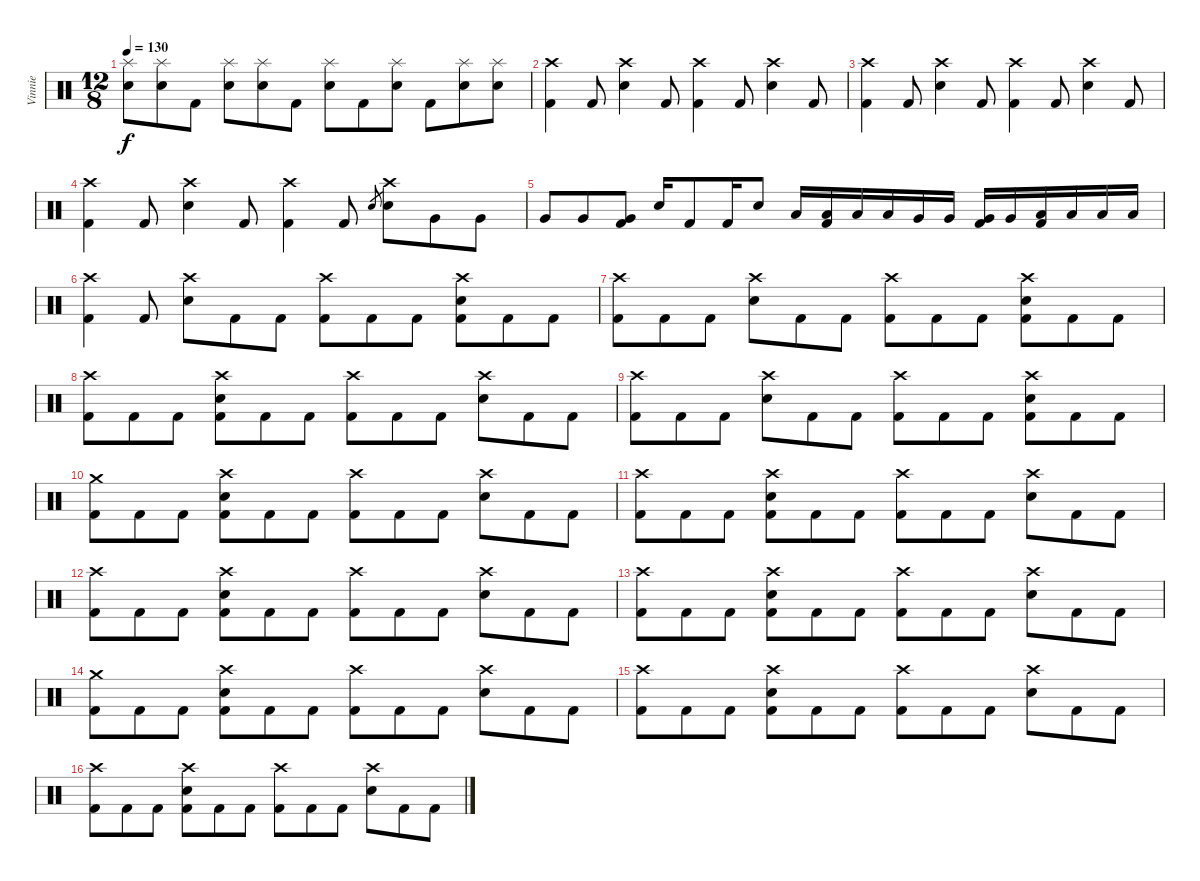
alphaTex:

\track ("Vinnie" "Vinnie") {instrument percussion}
\staff {score}
\articulation defaults
\ts (12 8)
\tempo 130
\clef neutral
\ks c
("Splash (hit)" "Electric Snare (hit)").8{dy f} ("Splash (hit)" "Electric Snare (hit)").8 "Kick (hit) 2".8 ("Splash (hit)" "Electric Snare (hit)").8 ("Splash (hit)" "Electric Snare (hit)").8 "Kick (hit) 2".8 ("Splash (hit)" "Electric Snare (hit)").8 "Kick (hit) 2".8 ("Splash (hit)" "Electric Snare (hit)").8 "Kick (hit) 2".8 ("Splash (hit)" "Electric Snare (hit)").8 ("Splash (hit)" "Electric Snare (hit)").8 |
("Crash high (hit)" "Kick (hit) 2").4 "Kick (hit) 2".8 ("Crash high (hit)" "Electric Snare (hit)").4 "Kick (hit) 2".8 ("Crash high (hit)" "Kick (hit) 2").4 "Kick (hit) 2".8 ("Crash high (hit)" "Electric Snare (hit)").4 "Kick (hit) 2".8 |
("Crash high (hit)" "Kick (hit) 2").4 "Kick (hit) 2".8 ("Crash high (hit)" "Electric Snare (hit)").4 "Kick (hit) 2".8 ("Crash high (hit)" "Kick (hit) 2").4 "Kick (hit) 2".8 ("Crash high (hit)" "Electric Snare (hit)").4 "Kick (hit) 2".8 |
("Crash high (hit)" "Kick (hit) 2").4 "Kick (hit) 2".8 ("Crash high (hit)" "Electric Snare (hit)").4 "Kick (hit) 2".8 ("Crash high (hit)" "Kick (hit) 2").4 "Kick (hit) 2".8 "Electric Snare (hit)".8{gr} ("Crash high (hit)" "Electric Snare (hit)").8 "Very Low Tom (hit)".8 "Very Low Tom (hit)".8 |
"Very Low Tom (hit)".8 "Very Low Tom (hit)".8 ("Very Low Tom (hit)" "Kick (hit) 2").8 "Electric Snare (hit)".16 "Kick (hit) 2".8 "Kick (hit) 2".16 "Electric Snare (hit)".8 "Low Tom (hit)".16 ("Low Tom (hit)" "Kick (hit) 2").16 "Low Tom (hit)".16 "Low Tom (hit)".16 "Very Low Tom (hit)".16 "Very Low Tom (hit)".16 ("Very Low Tom (hit)" "Kick (hit) 2").16 "Very Low Tom (hit)".16 ("Low Floor Tom (hit)" "Kick (hit) 2").16 "Low Floor Tom (hit)".16 "Low Floor Tom (hit)".16 "Low Floor Tom (hit)".16 |
("Crash high (hit)" "Kick (hit) 2").4 "Kick (hit) 2".8 ("Crash high (hit)" "Electric Snare (hit)").8 "Kick (hit) 2".8 "Kick (hit) 2".8 ("Crash high (hit)" "Kick (hit) 2").8 "Kick (hit) 2".8 "Kick (hit) 2".8 ("Crash high (hit)" "Electric Snare (hit)" "Kick (hit) 2").8 "Kick (hit) 2".8 "Kick (hit) 2".8 |
("Crash high (hit)" "Kick (hit) 2").8 "Kick (hit) 2".8 "Kick (hit) 2".8 ("Crash high (hit)" "Electric Snare (hit)").8 "Kick (hit) 2".8 "Kick (hit) 2".8 ("Crash high (hit)" "Kick (hit) 2").8 "Kick (hit) 2".8 "Kick (hit) 2".8 ("Crash high (hit)" "Electric Snare (hit)" "Kick (hit) 2").8 "Kick (hit) 2".8 "Kick (hit) 2".8 |
("Crash high (hit)" "Kick (hit) 2").8 "Kick (hit) 2".8 "Kick (hit) 2".8 ("Crash high (hit)" "Electric Snare (hit)" "Kick (hit) 2").8 "Kick (hit) 2".8 "Kick (hit) 2".8 ("Crash high (hit)" "Kick (hit) 2").8 "Kick (hit) 2".8 "Kick (hit) 2".8 ("Crash high (hit)" "Electric Snare (hit)").8 "Kick (hit) 2".8 "Kick (hit) 2".8 |
("Crash high (hit)" "Kick (hit) 2").8 "Kick (hit) 2".8 "Kick (hit) 2".8 ("Crash high (hit)" "Electric Snare (hit)").8 "Kick (hit) 2".8 "Kick (hit) 2".8 ("Crash high (hit)" "Kick (hit) 2").8 "Kick (hit) 2".8 "Kick (hit) 2".8 ("Crash high (hit)" "Electric Snare (hit)" "Kick (hit) 2").8 "Kick (hit) 2".8 "Kick (hit) 2".8 |
("Crash medium (hit)" "Kick (hit) 2").8 "Kick (hit) 2".8 "Kick (hit) 2".8 ("Crash high (hit)" "Electric Snare (hit)" "Kick (hit) 2").8 "Kick (hit) 2".8 "Kick (hit) 2".8 ("Crash high (hit)" "Kick (hit) 2").8 "Kick (hit) 2".8 "Kick (hit) 2".8 ("Crash high (hit)" "Electric Snare (hit)").8 "Kick (hit) 2".8 "Kick (hit) 2".8 |
("Crash high (hit)" "Kick (hit) 2").8 "Kick (hit) 2".8 "Kick (hit) 2".8 ("Crash high (hit)" "Electric Snare (hit)" "Kick (hit) 2").8 "Kick (hit) 2".8 "Kick (hit) 2".8 ("Crash high (hit)" "Kick (hit) 2").8 "Kick (hit) 2".8 "Kick (hit) 2".8 ("Crash high (hit)" "Electric Snare (hit)").8 "Kick (hit) 2".8 "Kick (hit) 2".8 |
("Crash high (hit)" "Kick (hit) 2").8 "Kick (hit) 2".8 "Kick (hit) 2".8 ("Crash high (hit)" "Electric Snare (hit)" "Kick (hit) 2").8 "Kick (hit) 2".8 "Kick (hit) 2".8 ("Crash high (hit)" "Kick (hit) 2").8 "Kick (hit) 2".8 "Kick (hit) 2".8 ("Crash high (hit)" "Electric Snare (hit)").8 "Kick (hit) 2".8 "Kick (hit) 2".8 |
("Crash high (hit)" "Kick (hit) 2").8 "Kick (hit) 2".8 "Kick (hit) 2".8 ("Crash high (hit)" "Electric Snare (hit)" "Kick (hit) 2").8 "Kick (hit) 2".8 "Kick (hit) 2".8 ("Crash high (hit)" "Kick (hit) 2").8 "Kick (hit) 2".8 "Kick (hit) 2".8 ("Crash high (hit)" "Electric Snare (hit)").8 "Kick (hit) 2".8 "Kick (hit) 2".8 |
("Crash medium (hit)" "Kick (hit) 2").8 "Kick (hit) 2".8 "Kick (hit) 2".8 ("Crash high (hit)" "Electric Snare (hit)" "Kick (hit) 2").8 "Kick (hit) 2".8 "Kick (hit) 2".8 ("Crash high (hit)" "Kick (hit) 2").8 "Kick (hit) 2".8 "Kick (hit) 2".8 ("Crash high (hit)" "Electric Snare (hit)").8 "Kick (hit) 2".8 "Kick (hit) 2".8 |
("Crash high (hit)" "Kick (hit) 2").8 "Kick (hit) 2".8 "Kick (hit) 2".8 ("Crash high (hit)" "Electric Snare (hit)" "Kick (hit) 2").8 "Kick (hit) 2".8 "Kick (hit) 2".8 ("Crash high (hit)" "Kick (hit) 2").8 "Kick (hit) 2".8 "Kick (hit) 2".8 ("Crash high (hit)" "Electric Snare (hit)").8 "Kick (hit) 2".8 "Kick (hit) 2".8 |
("Crash high (hit)" "Kick (hit) 2").8 "Kick (hit) 2".8 "Kick (hit) 2".8 ("Crash high (hit)" "Electric Snare (hit)" "Kick (hit) 2").8 "Kick (hit) 2".8 "Kick (hit) 2".8 ("Crash high (hit)" "Kick (hit) 2").8 "Kick (hit) 2".8 "Kick (hit) 2".8 ("Crash high (hit)" "Electric Snare (hit)").8 "Kick (hit) 2".8 "Kick (hit) 2".8
